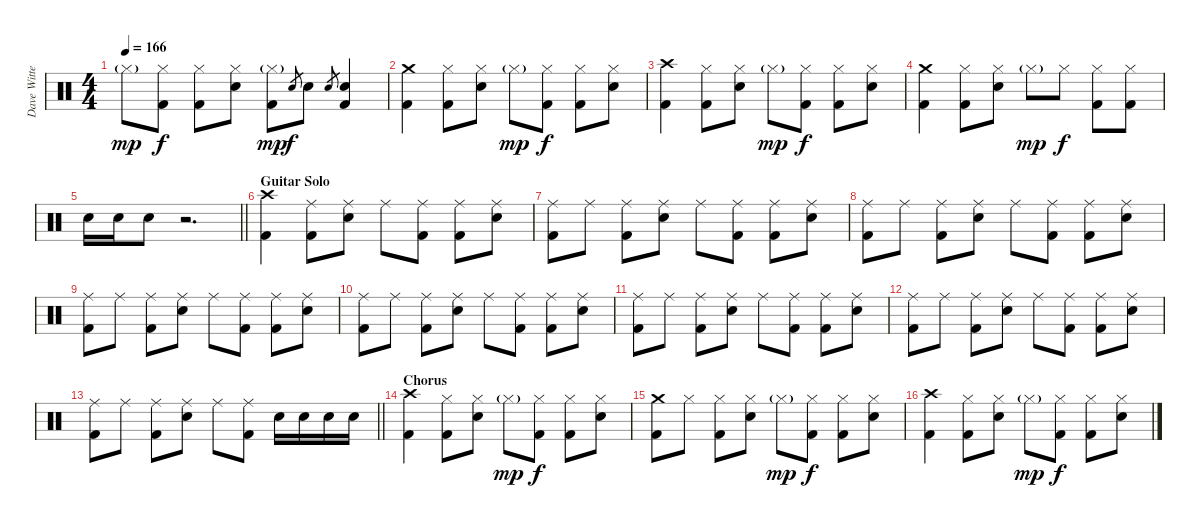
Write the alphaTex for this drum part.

\track ("Dave Witte" "Dave Witte") {instrument percussion}
\staff {score}
\articulation defaults
\ts (4 4)
\tempo 166
\clef neutral
\ks c "Hi-Hat (closed)"{g}.8{dy mp}
("Hi-Hat (closed)" "Kick (hit) 2").8{dy f} ("Hi-Hat (closed)" "Kick (hit) 2").8 ("Hi-Hat (closed)" "Electric Snare (hit)").8 ("Hi-Hat (closed)"{g} "Kick (hit) 2").8{dy mp} "Electric Snare (hit)".8{gr dy f} "Electric Snare (hit)".8 "Electric Snare (hit)".8{gr} ("Electric Snare (hit)" "Kick (hit) 2").4 |
("Crash medium (hit)" "Kick (hit) 2").4 ("Hi-Hat (closed)" "Kick (hit) 2").8 ("Hi-Hat (closed)" "Electric Snare (hit)").8 "Hi-Hat (closed)"{g}.8{dy mp} ("Hi-Hat (closed)" "Kick (hit) 2").8{dy f} ("Hi-Hat (closed)" "Kick (hit) 2").8 ("Hi-Hat (closed)" "Electric Snare (hit)").8 |
("Crash high (hit)" "Kick (hit) 2").4 ("Hi-Hat (closed)" "Kick (hit) 2").8 ("Hi-Hat (closed)" "Electric Snare (hit)").8 "Hi-Hat (closed)"{g}.8{dy mp} ("Hi-Hat (closed)" "Kick (hit) 2").8{dy f} ("Hi-Hat (closed)" "Kick (hit) 2").8 ("Hi-Hat (closed)" "Electric Snare (hit)").8 |
("Crash medium (hit)" "Kick (hit) 2").4 ("Hi-Hat (closed)" "Kick (hit) 2").8 ("Hi-Hat (closed)" "Electric Snare (hit)").8 "Hi-Hat (closed)"{g}.8{dy mp} "Hi-Hat (closed)".8{dy f} ("Hi-Hat (closed)" "Kick (hit) 2").8 ("Hi-Hat (closed)" "Kick (hit) 2").8 |
\barLineRight lightlight "Electric Snare (hit)".16 "Electric Snare (hit)".16 "Electric Snare (hit)".8
r.2{d} |
\section ("" "Guitar Solo")
("Crash high (hit)" "Kick (hit) 2").4 ("Ride (middle)" "Kick (hit) 2").8 ("Ride (middle)" "Electric Snare (hit)").8 "Ride (middle)".8 ("Ride (middle)" "Kick (hit) 2").8 ("Ride (middle)" "Kick (hit) 2").8 ("Ride (middle)" "Electric Snare (hit)").8 |
("Ride (middle)" "Kick (hit) 2").8 "Ride (middle)".8 ("Ride (middle)" "Kick (hit) 2").8 ("Ride (middle)" "Electric Snare (hit)").8 "Ride (middle)".8 ("Ride (middle)" "Kick (hit) 2").8 ("Ride (middle)" "Kick (hit) 2").8 ("Ride (middle)" "Electric Snare (hit)").8 |
("Ride (middle)" "Kick (hit) 2").8 "Ride (middle)".8 ("Ride (middle)" "Kick (hit) 2").8 ("Ride (middle)" "Electric Snare (hit)").8 "Ride (middle)".8 ("Ride (middle)" "Kick (hit) 2").8 ("Ride (middle)" "Kick (hit) 2").8 ("Ride (middle)" "Electric Snare (hit)").8 |
("Ride (middle)" "Kick (hit) 2").8 "Ride (middle)".8 ("Ride (middle)" "Kick (hit) 2").8 ("Ride (middle)" "Electric Snare (hit)").8 "Ride (middle)".8 ("Ride (middle)" "Kick (hit) 2").8 ("Ride (middle)" "Kick (hit) 2").8 ("Ride (middle)" "Electric Snare (hit)").8 |
("Ride (middle)" "Kick (hit) 2").8 "Ride (middle)".8 ("Ride (middle)" "Kick (hit) 2").8 ("Ride (middle)" "Electric Snare (hit)").8 "Ride (middle)".8 ("Ride (middle)" "Kick (hit) 2").8 ("Ride (middle)" "Kick (hit) 2").8 ("Ride (middle)" "Electric Snare (hit)").8 |
("Ride (middle)" "Kick (hit) 2").8 "Ride (middle)".8 ("Ride (middle)" "Kick (hit) 2").8 ("Ride (middle)" "Electric Snare (hit)").8 "Ride (middle)".8 ("Ride (middle)" "Kick (hit) 2").8 ("Ride (middle)" "Kick (hit) 2").8 ("Ride (middle)" "Electric Snare (hit)").8 |
("Ride (middle)" "Kick (hit) 2").8 "Ride (middle)".8 ("Ride (middle)" "Kick (hit) 2").8 ("Ride (middle)" "Electric Snare (hit)").8 "Ride (middle)".8 ("Ride (middle)" "Kick (hit) 2").8 ("Ride (middle)" "Kick (hit) 2").8 ("Ride (middle)" "Electric Snare (hit)").8 |
\barLineRight lightlight
("Ride (middle)" "Kick (hit) 2").8 "Ride (middle)".8 ("Ride (middle)" "Kick (hit) 2").8 ("Ride (middle)" "Electric Snare (hit)").8 "Ride (middle)".8 ("Ride (middle)" "Kick (hit) 2").8 "Electric Snare (hit)".16 "Electric Snare (hit)".16 "Electric Snare (hit)".16 "Electric Snare (hit)".16 |
\section ("" "Chorus")
("Crash high (hit)" "Kick (hit) 2").4 ("Hi-Hat (closed)" "Kick (hit) 2").8 ("Hi-Hat (closed)" "Electric Snare (hit)").8 "Hi-Hat (closed)"{g}.8{dy mp} ("Hi-Hat (closed)" "Kick (hit) 2").8{dy f} ("Hi-Hat (closed)" "Kick (hit) 2").8 ("Hi-Hat (closed)" "Electric Snare (hit)").8 |
("Crash medium (hit)" "Kick (hit) 2").8 "Hi-Hat (closed)".8 ("Hi-Hat (closed)" "Kick (hit) 2").8 ("Hi-Hat (closed)" "Electric Snare (hit)").8 "Hi-Hat (closed)"{g}.8{dy mp} ("Hi-Hat (closed)" "Kick (hit) 2").8{dy f} ("Hi-Hat (closed)" "Kick (hit) 2").8 ("Hi-Hat (closed)" "Electric Snare (hit)").8 |
("Crash high (hit)" "Kick (hit) 2").4 ("Hi-Hat (closed)" "Kick (hit) 2").8 ("Hi-Hat (closed)" "Electric Snare (hit)").8 "Hi-Hat (closed)"{g}.8{dy mp} ("Hi-Hat (closed)" "Kick (hit) 2").8{dy f} ("Hi-Hat (closed)" "Kick (hit) 2").8 ("Hi-Hat (closed)" "Electric Snare (hit)").8
